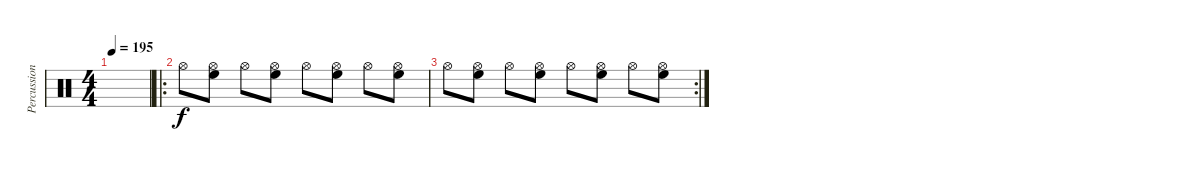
\track ("Percussion" "Percussion") {instrument percussion}
\staff {score}
\articulation defaults
\ts (4 4)
\tempo 195
\clef neutral
\ks c
|
\ro "Hi-Hat (open)".8{dy f}
("High Floor Tom (hit)" "Hi-Hat (open)").8 "Hi-Hat (open)".8 ("High Floor Tom (hit)" "Hi-Hat (open)").8 "Hi-Hat (open)".8 ("High Floor Tom (hit)" "Hi-Hat (open)").8 "Hi-Hat (open)".8 ("High Floor Tom (hit)" "Hi-Hat (open)").8 |
\rc 2 "Hi-Hat (open)".8
("High Floor Tom (hit)" "Hi-Hat (open)").8 "Hi-Hat (open)".8 ("High Floor Tom (hit)" "Hi-Hat (open)").8 "Hi-Hat (open)".8 ("High Floor Tom (hit)" "Hi-Hat (open)").8 "Hi-Hat (open)".8 ("High Floor Tom (hit)" "Hi-Hat (open)").8
